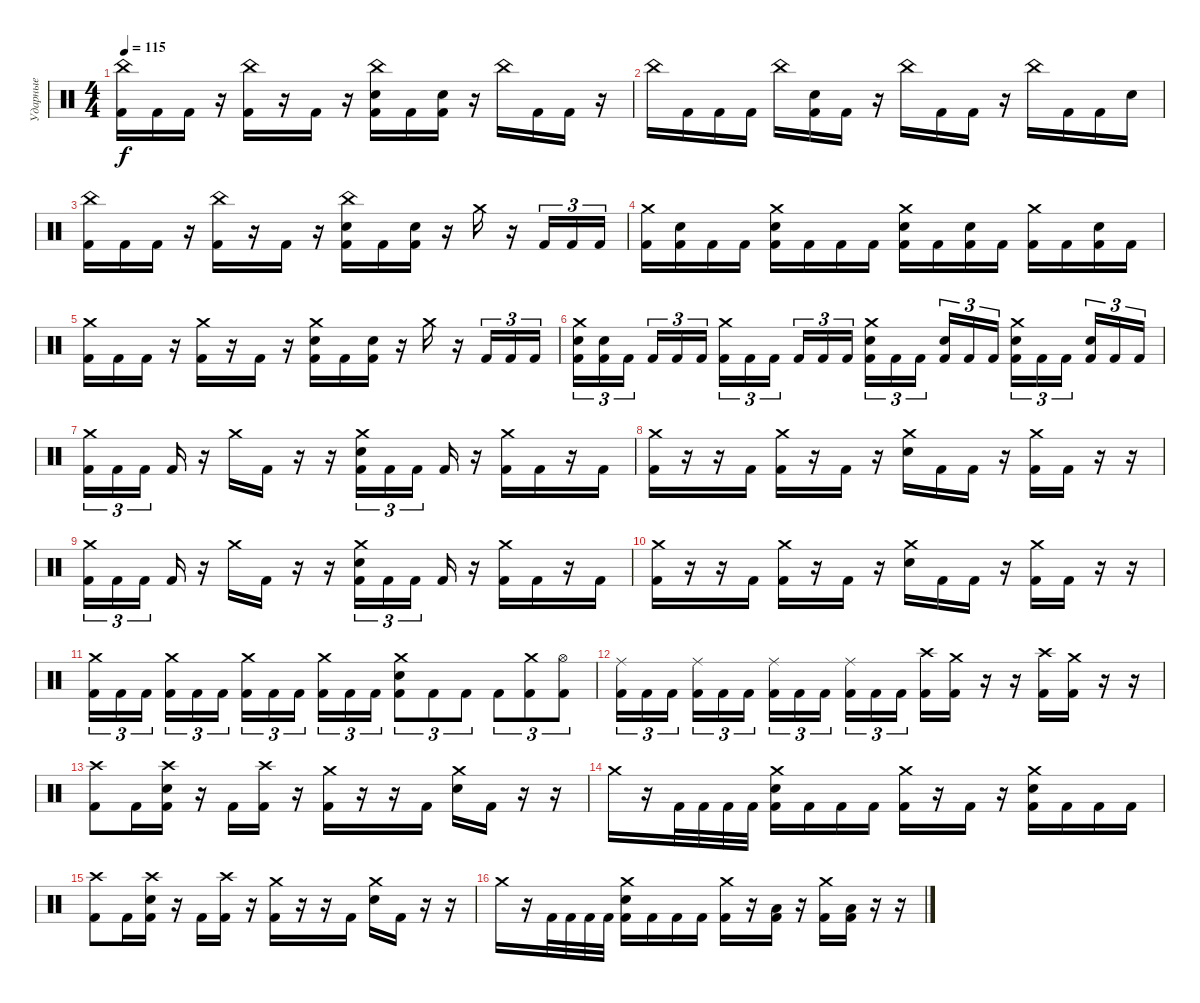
\track ("Ударные" "Ударные") {instrument percussion}
\staff {score}
\articulation defaults
\ts (4 4)
\tempo 115
\clef neutral
\ks c
("China (hit)" "Kick (hit) 2").16{dy f} "Kick (hit) 2".16 "Kick (hit) 2".16 r.16 ("China (hit)" "Kick (hit) 2").16 r.16 "Kick (hit) 2".16 r.16 ("China (hit)" "Electric Snare (hit)" "Kick (hit) 2").16 "Kick (hit) 2".16 ("Electric Snare (hit)" "Kick (hit) 2").16 r.16 "China (hit)".16 "Kick (hit) 2".16 "Kick (hit) 2".16 r.16 |
"China (hit)".16 "Kick (hit) 2".16 "Kick (hit) 2".16 "Kick (hit) 2".16 "China (hit)".16 ("Electric Snare (hit)" "Kick (hit) 2").16 "Kick (hit) 2".16 r.16 "China (hit)".16 "Kick (hit) 2".16 "Kick (hit) 2".16 r.16 "China (hit)".16 "Kick (hit) 2".16 "Kick (hit) 2".16 "Electric Snare (hit)".16 |
("China (hit)" "Kick (hit) 2").16 "Kick (hit) 2".16 "Kick (hit) 2".16 r.16 ("China (hit)" "Kick (hit) 2").16 r.16 "Kick (hit) 2".16 r.16 ("China (hit)" "Electric Snare (hit)" "Kick (hit) 2").16 "Kick (hit) 2".16 ("Electric Snare (hit)" "Kick (hit) 2").16 r.16 "Crash medium (hit)".16 r.16 "Kick (hit) 2".16{tu (3 2)} "Kick (hit) 2".16{tu (3 2)} "Kick (hit) 2".16{tu (3 2)} |
("Crash medium (hit)" "Kick (hit) 2").16 ("Electric Snare (hit)" "Kick (hit) 2").16 "Kick (hit) 2".16 "Kick (hit) 2".16 ("Crash medium (hit)" "Electric Snare (hit)" "Kick (hit) 2").16 "Kick (hit) 2".16 "Kick (hit) 2".16 "Kick (hit) 2".16 ("Crash medium (hit)" "Electric Snare (hit)" "Kick (hit) 2").16 "Kick (hit) 2".16 ("Electric Snare (hit)" "Kick (hit) 2").16 "Kick (hit) 2".16 ("Crash medium (hit)" "Kick (hit) 2").16 "Kick (hit) 2".16 ("Electric Snare (hit)" "Kick (hit) 2").16 "Kick (hit) 2".16 |
("Crash medium (hit)" "Kick (hit) 2").16 "Kick (hit) 2".16 "Kick (hit) 2".16 r.16 ("Crash medium (hit)" "Kick (hit) 2").16 r.16 "Kick (hit) 2".16 r.16 ("Crash medium (hit)" "Electric Snare (hit)" "Kick (hit) 2").16 "Kick (hit) 2".16 ("Electric Snare (hit)" "Kick (hit) 2").16 r.16 "Crash medium (hit)".16 r.16 "Kick (hit) 2".16{tu (3 2)} "Kick (hit) 2".16{tu (3 2)} "Kick (hit) 2".16{tu (3 2)} |
("Crash medium (hit)" "Electric Snare (hit)" "Kick (hit) 2").16{tu (3 2)} ("Electric Snare (hit)" "Kick (hit) 2").16{tu (3 2)} "Kick (hit) 2".16{tu (3 2) beam splitsecondary} "Kick (hit) 2".16{tu (3 2)} "Kick (hit) 2".16{tu (3 2)} "Kick (hit) 2".16{tu (3 2)} ("Crash medium (hit)" "Kick (hit) 2").16{tu (3 2)} "Kick (hit) 2".16{tu (3 2)} "Kick (hit) 2".16{tu (3 2) beam splitsecondary} "Kick (hit) 2".16{tu (3 2)} "Kick (hit) 2".16{tu (3 2)} "Kick (hit) 2".16{tu (3 2)} ("Crash medium (hit)" "Electric Snare (hit)" "Kick (hit) 2").16{tu (3 2)} "Kick (hit) 2".16{tu (3 2)} "Kick (hit) 2".16{tu (3 2) beam splitsecondary} ("Electric Snare (hit)" "Kick (hit) 2").16{tu (3 2)} "Kick (hit) 2".16{tu (3 2)} "Kick (hit) 2".16{tu (3 2)} ("Crash medium (hit)" "Electric Snare (hit)" "Kick (hit) 2").16{tu (3 2)} "Kick (hit) 2".16{tu (3 2)} "Kick (hit) 2".16{tu (3 2) beam splitsecondary} ("Electric Snare (hit)" "Kick (hit) 2").16{tu (3 2)} "Kick (hit) 2".16{tu (3 2)} "Kick (hit) 2".16{tu (3 2)} |
("Crash medium (hit)" "Kick (hit) 2").16{tu (3 2)} "Kick (hit) 2".16{tu (3 2)} "Kick (hit) 2".16{tu (3 2) beam splitsecondary} "Kick (hit) 2".16 r.16 "Crash medium (hit)".16 "Kick (hit) 2".16 r.16 r.16 ("Crash medium (hit)" "Electric Snare (hit)" "Kick (hit) 2").16{tu (3 2)} "Kick (hit) 2".16{tu (3 2)} "Kick (hit) 2".16{tu (3 2) beam splitsecondary} "Kick (hit) 2".16 r.16 ("Crash medium (hit)" "Kick (hit) 2").16 "Kick (hit) 2".16 r.16 "Kick (hit) 2".16 |
("Crash medium (hit)" "Kick (hit) 2").16 r.16 r.16 "Kick (hit) 2".16 ("Crash medium (hit)" "Kick (hit) 2").16 r.16 "Kick (hit) 2".16 r.16 ("Crash medium (hit)" "Electric Snare (hit)").16 "Kick (hit) 2".16 "Kick (hit) 2".16 r.16 ("Crash medium (hit)" "Kick (hit) 2").16 "Kick (hit) 2".16 r.16 r.16 |
("Crash medium (hit)" "Kick (hit) 2").16{tu (3 2)} "Kick (hit) 2".16{tu (3 2)} "Kick (hit) 2".16{tu (3 2) beam splitsecondary} "Kick (hit) 2".16 r.16 "Crash medium (hit)".16 "Kick (hit) 2".16 r.16 r.16 ("Crash medium (hit)" "Electric Snare (hit)" "Kick (hit) 2").16{tu (3 2)} "Kick (hit) 2".16{tu (3 2)} "Kick (hit) 2".16{tu (3 2) beam splitsecondary} "Kick (hit) 2".16 r.16 ("Crash medium (hit)" "Kick (hit) 2").16 "Kick (hit) 2".16 r.16 "Kick (hit) 2".16 |
("Crash medium (hit)" "Kick (hit) 2").16 r.16 r.16 "Kick (hit) 2".16 ("Crash medium (hit)" "Kick (hit) 2").16 r.16 "Kick (hit) 2".16 r.16 ("Crash medium (hit)" "Electric Snare (hit)").16 "Kick (hit) 2".16 "Kick (hit) 2".16 r.16 ("Crash medium (hit)" "Kick (hit) 2").16 "Kick (hit) 2".16 r.16 r.16 |
("Crash medium (hit)" "Kick (hit) 2").16{tu (3 2)} "Kick (hit) 2".16{tu (3 2)} "Kick (hit) 2".16{tu (3 2) beam splitsecondary} ("Crash medium (hit)" "Kick (hit) 2").16{tu (3 2)} "Kick (hit) 2".16{tu (3 2)} "Kick (hit) 2".16{tu (3 2)} ("Crash medium (hit)" "Kick (hit) 2").16{tu (3 2)} "Kick (hit) 2".16{tu (3 2)} "Kick (hit) 2".16{tu (3 2) beam splitsecondary} ("Crash medium (hit)" "Kick (hit) 2").16{tu (3 2)} "Kick (hit) 2".16{tu (3 2)} "Kick (hit) 2".16{tu (3 2)} ("Crash medium (hit)" "Electric Snare (hit)" "Kick (hit) 2").8{tu (3 2)} "Kick (hit) 2".8{tu (3 2)} "Kick (hit) 2".8{tu (3 2)} "Kick (hit) 2".8{tu (3 2)} ("Crash medium (hit)" "Kick (hit) 2").8{tu (3 2)} ("Hi-Hat (open)" "Kick (hit) 2").8{tu (3 2)} |
("Ride (middle)" "Kick (hit) 2").16{tu (3 2)} "Kick (hit) 2".16{tu (3 2)} "Kick (hit) 2".16{tu (3 2) beam splitsecondary} ("Ride (middle)" "Kick (hit) 2").16{tu (3 2)} "Kick (hit) 2".16{tu (3 2)} "Kick (hit) 2".16{tu (3 2)} ("Ride (middle)" "Kick (hit) 2").16{tu (3 2)} "Kick (hit) 2".16{tu (3 2)} "Kick (hit) 2".16{tu (3 2) beam splitsecondary} ("Ride (middle)" "Kick (hit) 2").16{tu (3 2)} "Kick (hit) 2".16{tu (3 2)} "Kick (hit) 2".16{tu (3 2)} ("Crash high (hit)" "Kick (hit) 2").16 ("Crash medium (hit)" "Kick (hit) 2").16 r.16 r.16 ("Crash high (hit)" "Kick (hit) 2").16 ("Crash medium (hit)" "Kick (hit) 2").16 r.16 r.16 |
("Crash high (hit)" "Kick (hit) 2").8 "Kick (hit) 2".16 ("Crash high (hit)" "Electric Snare (hit)" "Kick (hit) 2").16 r.16 "Kick (hit) 2".16 ("Crash high (hit)" "Kick (hit) 2").16 r.16 ("Crash medium (hit)" "Kick (hit) 2").16 r.16 r.16 "Kick (hit) 2".16 ("Crash medium (hit)" "Electric Snare (hit)").16 "Kick (hit) 2".16 r.16 r.16 |
"Crash medium (hit)".16 r.16 "Kick (hit) 2".32 "Kick (hit) 2".32 "Kick (hit) 2".32 "Kick (hit) 2".32 ("Crash medium (hit)" "Electric Snare (hit)" "Kick (hit) 2").16 "Kick (hit) 2".16 "Kick (hit) 2".16 "Kick (hit) 2".16 ("Crash medium (hit)" "Kick (hit) 2").16 r.16 "Kick (hit) 2".16 r.16 ("Crash medium (hit)" "Electric Snare (hit)" "Kick (hit) 2").16 "Kick (hit) 2".16 "Kick (hit) 2".16 "Kick (hit) 2".16 |
("Crash high (hit)" "Kick (hit) 2").8 "Kick (hit) 2".16 ("Crash high (hit)" "Electric Snare (hit)" "Kick (hit) 2").16 r.16 "Kick (hit) 2".16 ("Crash high (hit)" "Kick (hit) 2").16 r.16 ("Crash medium (hit)" "Kick (hit) 2").16 r.16 r.16 "Kick (hit) 2".16 ("Crash medium (hit)" "Electric Snare (hit)").16 "Kick (hit) 2".16 r.16 r.16 |
"Crash medium (hit)".16 r.16 "Kick (hit) 2".32 "Kick (hit) 2".32 "Kick (hit) 2".32 "Kick (hit) 2".32 ("Crash medium (hit)" "Electric Snare (hit)" "Kick (hit) 2").16 "Kick (hit) 2".16 "Kick (hit) 2".16 "Kick (hit) 2".16 ("Crash medium (hit)" "Kick (hit) 2").16 r.16 ("Low Tom (hit)" "Kick (hit) 2").16 r.16 ("Crash medium (hit)" "Kick (hit) 2").16 ("Low Floor Tom (hit)" "Kick (hit) 2").16 r.16 r.16
